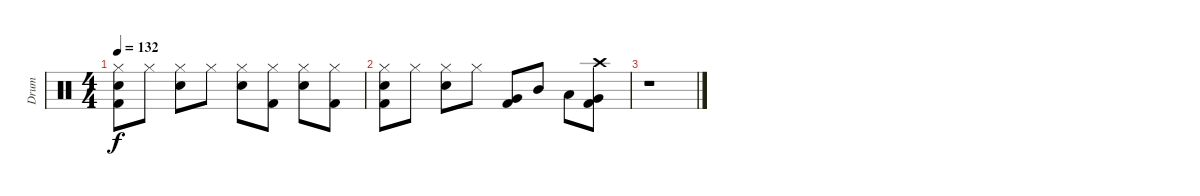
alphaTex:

\track ("Drum" "Drum") {instrument percussion}
\staff {score}
\articulation defaults
\ts (4 4)
\tempo 132
\clef neutral
\ks c
("Hi-Hat (closed)" "Electric Snare (hit)" "Kick (hit) 2").8{dy f} "Hi-Hat (closed)".8 ("Hi-Hat (closed)" "Electric Snare (hit)").8 "Hi-Hat (closed)".8 ("Hi-Hat (closed)" "Electric Snare (hit)").8 ("Hi-Hat (closed)" "Kick (hit) 2").8 ("Hi-Hat (closed)" "Electric Snare (hit)").8 ("Hi-Hat (closed)" "Kick (hit) 2").8 |
("Hi-Hat (closed)" "Electric Snare (hit)" "Kick (hit) 2").8 "Hi-Hat (closed)".8 ("Hi-Hat (closed)" "Electric Snare (hit)").8 "Hi-Hat (closed)".8 ("Very Low Tom (hit)" "Kick (hit) 2").8 "Mid Tom (hit)".8 "Low Tom (hit)".8 ("Crash high (hit)" "Very Low Tom (hit)" "Kick (hit) 2").8 |
r.1
